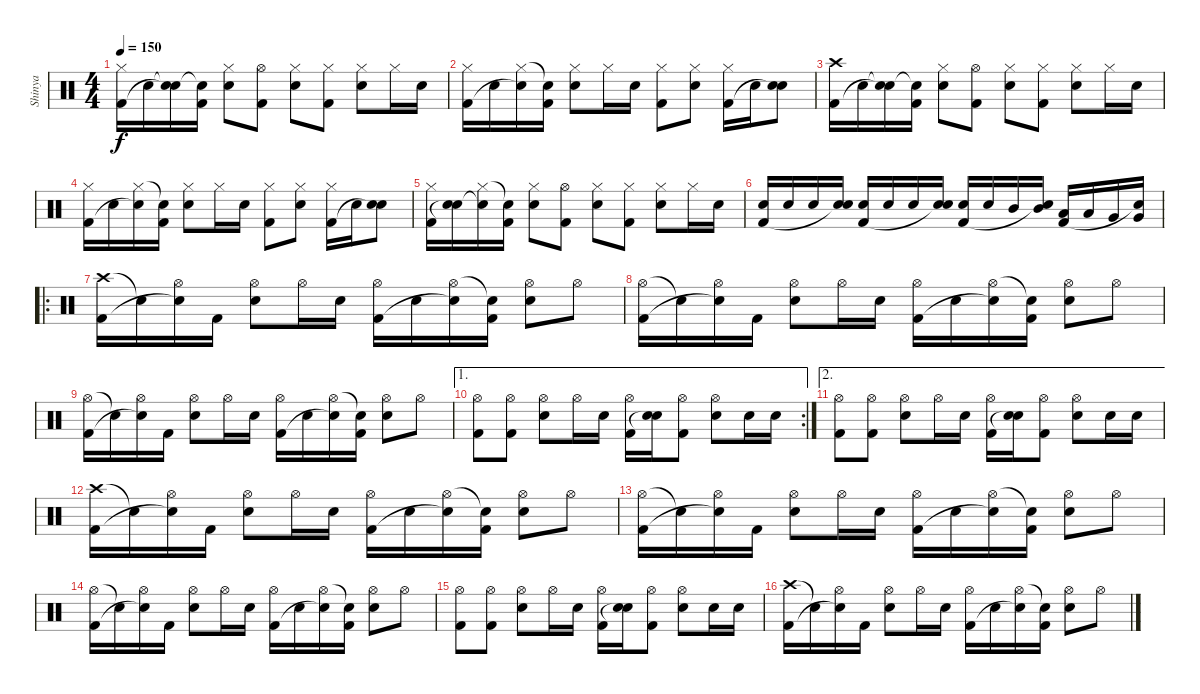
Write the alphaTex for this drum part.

\track ("Shinya" "Shinya") {instrument percussion}
\staff {score}
\articulation defaults
\ts (4 4)
\tempo 150
\clef neutral
\ks c
("Hi-Hat (closed)" "Kick (hit) 2").16{dy f} "Electric Snare (hit)".16 ("Snare (hit)"{t} "Snare (hit)"{t}).16 ("Snare (hit)"{t} "Kick (hit) 2").16 ("Hi-Hat (closed)" "Electric Snare (hit)").8 ("Hi-Hat (open)" "Kick (hit) 2").8 ("Hi-Hat (closed)" "Electric Snare (hit)").8 ("Hi-Hat (closed)" "Kick (hit) 2").8 ("Hi-Hat (closed)" "Electric Snare (hit)").8 "Hi-Hat (closed)".16 "Electric Snare (hit)".16 |
("Hi-Hat (closed)" "Kick (hit) 2").16 "Electric Snare (hit)".16 ("Hi-Hat (closed)" "Snare (hit)"{t}).16 ("Snare (hit)"{t} "Kick (hit) 2").16 ("Hi-Hat (closed)" "Electric Snare (hit)").8 "Hi-Hat (closed)".16 "Electric Snare (hit)".16 ("Hi-Hat (closed)" "Kick (hit) 2").8 ("Hi-Hat (closed)" "Electric Snare (hit)").8 ("Hi-Hat (closed)" "Kick (hit) 2").16 "Electric Snare (hit)".16 ("Electric Snare (hit)" "Snare (hit)"{t}).8 |
("Crash high (hit)" "Kick (hit) 2").16 "Electric Snare (hit)".16 ("Snare (hit)"{t} "Snare (hit)"{t}).16 ("Snare (hit)"{t} "Kick (hit) 2").16 ("Hi-Hat (closed)" "Electric Snare (hit)").8 ("Hi-Hat (open)" "Kick (hit) 2").8 ("Hi-Hat (closed)" "Electric Snare (hit)").8 ("Hi-Hat (closed)" "Kick (hit) 2").8 ("Hi-Hat (closed)" "Electric Snare (hit)").8 "Hi-Hat (closed)".16 "Electric Snare (hit)".16 |
("Hi-Hat (closed)" "Kick (hit) 2").16 "Electric Snare (hit)".16 ("Hi-Hat (closed)" "Snare (hit)"{t}).16 ("Snare (hit)"{t} "Kick (hit) 2").16 ("Hi-Hat (closed)" "Electric Snare (hit)").8 "Hi-Hat (closed)".16 "Electric Snare (hit)".16 ("Hi-Hat (closed)" "Kick (hit) 2").8 ("Hi-Hat (closed)" "Electric Snare (hit)").8 ("Hi-Hat (closed)" "Kick (hit) 2").16 "Electric Snare (hit)".16 ("Electric Snare (hit)" "Snare (hit)"{t}).8 |
("Hi-Hat (closed)" "Kick (hit) 2").16 ("Electric Snare (hit)" "Snare (hit)"{t}).16 ("Hi-Hat (closed)" "Snare (hit)"{t}).16 ("Snare (hit)"{t} "Kick (hit) 2").16 ("Hi-Hat (closed)" "Electric Snare (hit)").8 ("Hi-Hat (open)" "Kick (hit) 2").8 ("Hi-Hat (closed)" "Electric Snare (hit)").8 ("Hi-Hat (closed)" "Kick (hit) 2").8 ("Hi-Hat (closed)" "Electric Snare (hit)").8 "Hi-Hat (closed)".16 "Electric Snare (hit)".16 |
("Electric Snare (hit)" "Kick (hit) 2").16 "Electric Snare (hit)".16 "Electric Snare (hit)".16 ("Electric Snare (hit)" "Snare (hit)"{t}).16 ("Electric Snare (hit)" "Kick (hit) 2").16 "Electric Snare (hit)".16 "Electric Snare (hit)".16 ("Electric Snare (hit)" "Snare (hit)"{t}).16 ("Electric Snare (hit)" "Kick (hit) 2").16 "Electric Snare (hit)".16 "Mid Tom (hit)".16 ("Mid Tom (hit)" "Snare (hit)"{t}).16 ("Low Tom (hit)" "Kick (hit) 2").16 "Low Tom (hit)".16 "Very Low Tom (hit)".16 ("Very Low Tom (hit)" "Snare (hit)"{t}).16 |
\ro
("Crash high (hit)" "Kick (hit) 2").16 "Snare (hit)"{t}.16 ("Hi-Hat (open)" "Snare (hit)"{t}).16 "Kick (hit) 2".16 ("Hi-Hat (open)" "Electric Snare (hit)").8 "Hi-Hat (open)".16 "Electric Snare (hit)".16 ("Hi-Hat (open)" "Kick (hit) 2").16 "Electric Snare (hit)".16 ("Hi-Hat (open)" "Snare (hit)"{t}).16 ("Snare (hit)"{t} "Kick (hit) 2").16 ("Hi-Hat (open)" "Electric Snare (hit)").8 "Hi-Hat (open)".8 |
("Hi-Hat (open)" "Kick (hit) 2").16 "Snare (hit)"{t}.16 ("Hi-Hat (open)" "Snare (hit)"{t}).16 "Kick (hit) 2".16 ("Hi-Hat (open)" "Electric Snare (hit)").8 "Hi-Hat (open)".16 "Electric Snare (hit)".16 ("Hi-Hat (open)" "Kick (hit) 2").16 "Electric Snare (hit)".16 ("Hi-Hat (open)" "Snare (hit)"{t}).16 ("Snare (hit)"{t} "Kick (hit) 2").16 ("Hi-Hat (open)" "Electric Snare (hit)").8 "Hi-Hat (open)".8 |
("Hi-Hat (open)" "Kick (hit) 2").16 "Snare (hit)"{t}.16 ("Hi-Hat (open)" "Snare (hit)"{t}).16 "Kick (hit) 2".16 ("Hi-Hat (open)" "Electric Snare (hit)").8 "Hi-Hat (open)".16 "Electric Snare (hit)".16 ("Hi-Hat (open)" "Kick (hit) 2").16 "Electric Snare (hit)".16 ("Hi-Hat (open)" "Snare (hit)"{t}).16 ("Snare (hit)"{t} "Kick (hit) 2").16 ("Hi-Hat (open)" "Electric Snare (hit)").8 "Hi-Hat (open)".8 |
\ae 1
\rc 2
("Hi-Hat (open)" "Kick (hit) 2").8 ("Hi-Hat (open)" "Kick (hit) 2").8 ("Hi-Hat (open)" "Electric Snare (hit)").8 "Hi-Hat (open)".16 "Electric Snare (hit)".16 ("Hi-Hat (open)" "Kick (hit) 2").16 ("Electric Snare (hit)" "Snare (hit)"{t}).16 ("Hi-Hat (open)" "Kick (hit) 2").8 ("Hi-Hat (open)" "Electric Snare (hit)").8 "Electric Snare (hit)".16 "Electric Snare (hit)".16 |
\ae 2
("Hi-Hat (open)" "Kick (hit) 2").8 ("Hi-Hat (open)" "Kick (hit) 2").8 ("Hi-Hat (open)" "Electric Snare (hit)").8 "Hi-Hat (open)".16 "Electric Snare (hit)".16 ("Hi-Hat (open)" "Kick (hit) 2").16 ("Electric Snare (hit)" "Snare (hit)"{t}).16 ("Hi-Hat (open)" "Kick (hit) 2").8 ("Hi-Hat (open)" "Electric Snare (hit)").8 "Electric Snare (hit)".16 "Electric Snare (hit)".16 |
("Crash high (hit)" "Kick (hit) 2").16 "Snare (hit)"{t}.16 ("Hi-Hat (open)" "Snare (hit)"{t}).16 "Kick (hit) 2".16 ("Hi-Hat (open)" "Electric Snare (hit)").8 "Hi-Hat (open)".16 "Electric Snare (hit)".16 ("Hi-Hat (open)" "Kick (hit) 2").16 "Electric Snare (hit)".16 ("Hi-Hat (open)" "Snare (hit)"{t}).16 ("Snare (hit)"{t} "Kick (hit) 2").16 ("Hi-Hat (open)" "Electric Snare (hit)").8 "Hi-Hat (open)".8 |
("Hi-Hat (open)" "Kick (hit) 2").16 "Snare (hit)"{t}.16 ("Hi-Hat (open)" "Snare (hit)"{t}).16 "Kick (hit) 2".16 ("Hi-Hat (open)" "Electric Snare (hit)").8 "Hi-Hat (open)".16 "Electric Snare (hit)".16 ("Hi-Hat (open)" "Kick (hit) 2").16 "Electric Snare (hit)".16 ("Hi-Hat (open)" "Snare (hit)"{t}).16 ("Snare (hit)"{t} "Kick (hit) 2").16 ("Hi-Hat (open)" "Electric Snare (hit)").8 "Hi-Hat (open)".8 |
("Hi-Hat (open)" "Kick (hit) 2").16 "Snare (hit)"{t}.16 ("Hi-Hat (open)" "Snare (hit)"{t}).16 "Kick (hit) 2".16 ("Hi-Hat (open)" "Electric Snare (hit)").8 "Hi-Hat (open)".16 "Electric Snare (hit)".16 ("Hi-Hat (open)" "Kick (hit) 2").16 "Electric Snare (hit)".16 ("Hi-Hat (open)" "Snare (hit)"{t}).16 ("Snare (hit)"{t} "Kick (hit) 2").16 ("Hi-Hat (open)" "Electric Snare (hit)").8 "Hi-Hat (open)".8 |
("Hi-Hat (open)" "Kick (hit) 2").8 ("Hi-Hat (open)" "Kick (hit) 2").8 ("Hi-Hat (open)" "Electric Snare (hit)").8 "Hi-Hat (open)".16 "Electric Snare (hit)".16 ("Hi-Hat (open)" "Kick (hit) 2").16 ("Electric Snare (hit)" "Snare (hit)"{t}).16 ("Hi-Hat (open)" "Kick (hit) 2").8 ("Hi-Hat (open)" "Electric Snare (hit)").8 "Electric Snare (hit)".16 "Electric Snare (hit)".16 |
("Crash high (hit)" "Kick (hit) 2").16 "Snare (hit)"{t}.16 ("Hi-Hat (open)" "Snare (hit)"{t}).16 "Kick (hit) 2".16 ("Hi-Hat (open)" "Electric Snare (hit)").8 "Hi-Hat (open)".16 "Electric Snare (hit)".16 ("Hi-Hat (open)" "Kick (hit) 2").16 "Electric Snare (hit)".16 ("Hi-Hat (open)" "Snare (hit)"{t}).16 ("Snare (hit)"{t} "Kick (hit) 2").16 ("Hi-Hat (open)" "Electric Snare (hit)").8 "Hi-Hat (open)".8
